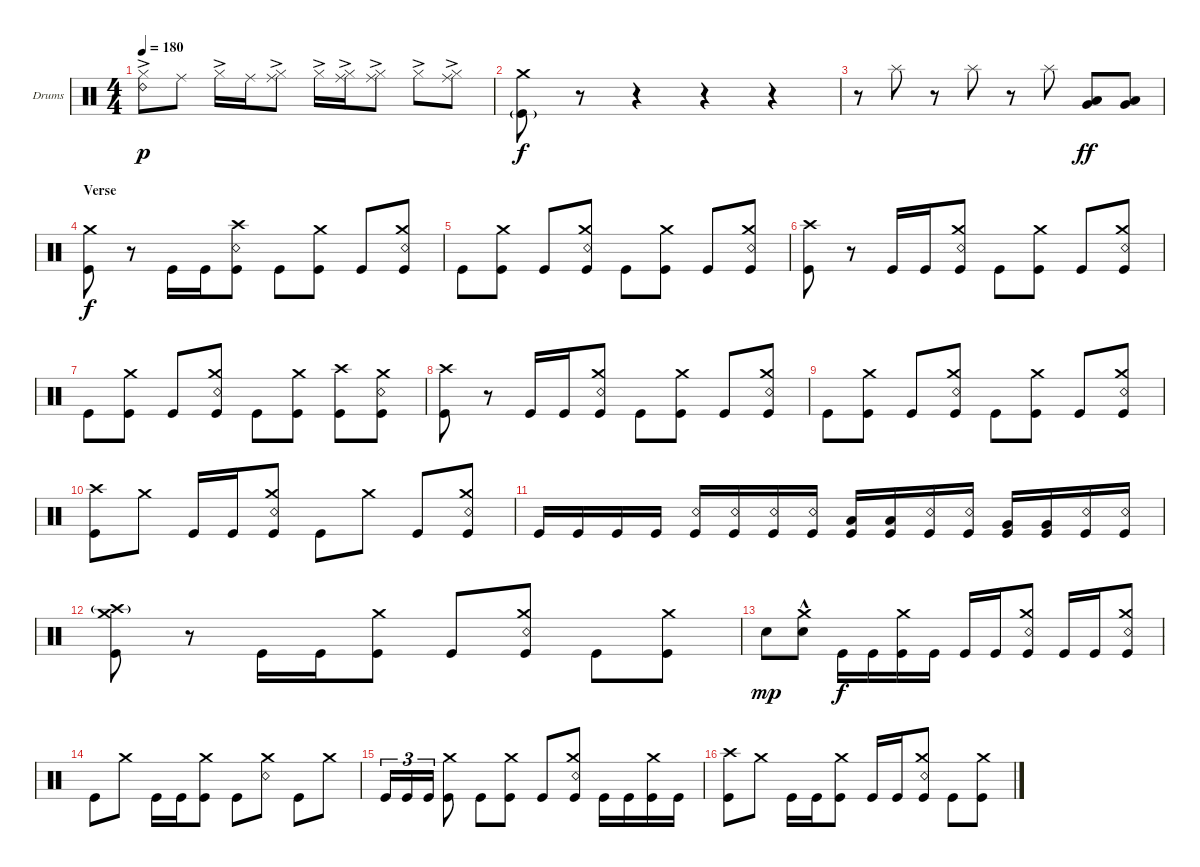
\bracketExtendMode groupsimilarinstruments
\firstSystemTrackNameOrientation horizontal
\otherSystemsTrackNameOrientation horizontal
\track ("Drumkit" "Drums") {instrument percussion}
\staff {score}
\articulation defaults
\ts (4 4)
\tempo 180
\clef neutral
\ks c
("Ride (bell) 2" "Hi-Hat (closed)"{ac}).8{dy p} "Ride (middle)".8 "Hi-Hat (closed)"{ac}.16 "Ride (middle)".16 ("Ride (middle)" "Hi-Hat (closed)"{ac}).8 "Hi-Hat (closed)"{ac}.16 ("Ride (middle)" "Hi-Hat (closed)"{ac}).16 ("Ride (middle)" "Hi-Hat (closed)"{ac}).8 "Hi-Hat (closed)"{ac}.8 ("Ride (middle)" "Hi-Hat (closed)"{ac}).8 |
("Kick (hit)"{g} "Crash medium (hit)").8{dy f} r.8 r.4 r.4 r.4 |
r.8 "Splash (hit)".8 r.8 "Splash (hit)".8 r.8 "Splash (hit)".8 ("Very Low Tom (hit)" "Low Tom (hit)").8{dy ff} ("Very Low Tom (hit)" "Low Tom (hit)").8 |
\section ("" "Verse")
("Kick (hit)" "Crash medium (hit)").8{dy f} r.8 "Kick (hit)".16 "Kick (hit)".16 ("Kick (hit)" "Snare (rim shot)" "Crash high (hit)").8 "Kick (hit)".8 ("Kick (hit)" "Crash medium (hit)").8 "Kick (hit)".8 ("Kick (hit)" "Snare (rim shot)" "Crash medium (hit)").8 |
"Kick (hit)".8 ("Kick (hit)" "Crash medium (hit)").8 "Kick (hit)".8 ("Kick (hit)" "Snare (rim shot)" "Crash medium (hit)").8 "Kick (hit)".8 ("Kick (hit)" "Crash medium (hit)").8 "Kick (hit)".8 ("Kick (hit)" "Snare (rim shot)" "Crash medium (hit)").8 |
("Kick (hit)" "Crash high (hit)").8 r.8 "Kick (hit)".16 "Kick (hit)".16 ("Kick (hit)" "Snare (rim shot)" "Crash medium (hit)").8 "Kick (hit)".8 ("Kick (hit)" "Crash medium (hit)").8 "Kick (hit)".8 ("Kick (hit)" "Snare (rim shot)" "Crash medium (hit)").8 |
"Kick (hit)".8 ("Kick (hit)" "Crash medium (hit)").8 "Kick (hit)".8 ("Kick (hit)" "Snare (rim shot)" "Crash medium (hit)").8 "Kick (hit)".8 ("Kick (hit)" "Crash medium (hit)").8 ("Kick (hit)" "Crash high (hit)").8 ("Kick (hit)" "Snare (rim shot)" "Crash medium (hit)").8 |
("Kick (hit)" "Crash high (hit)").8 r.8 "Kick (hit)".16 "Kick (hit)".16 ("Kick (hit)" "Snare (rim shot)" "Crash medium (hit)").8 "Kick (hit)".8 ("Kick (hit)" "Crash medium (hit)").8 "Kick (hit)".8 ("Kick (hit)" "Snare (rim shot)" "Crash medium (hit)").8 |
"Kick (hit)".8 ("Kick (hit)" "Crash medium (hit)").8 "Kick (hit)".8 ("Kick (hit)" "Snare (rim shot)" "Crash medium (hit)").8 "Kick (hit)".8 ("Kick (hit)" "Crash medium (hit)").8 "Kick (hit)".8 ("Kick (hit)" "Snare (rim shot)" "Crash medium (hit)").8 |
("Kick (hit)" "Crash high (hit)").8 "Crash medium (hit)".8 "Kick (hit)".16 "Kick (hit)".16 ("Kick (hit)" "Snare (rim shot)" "Crash medium (hit)").8 "Kick (hit)".8 "Crash medium (hit)".8 "Kick (hit)".8 ("Kick (hit)" "Snare (rim shot)" "Crash medium (hit)").8 |
"Kick (hit)".16 "Kick (hit)".16 "Kick (hit)".16 "Kick (hit)".16 ("Kick (hit)" "Snare (rim shot)").16 ("Kick (hit)" "Snare (rim shot)").16 ("Kick (hit)" "Snare (rim shot)").16 ("Kick (hit)" "Snare (rim shot)").16 ("Kick (hit)" "Low Tom (hit)").16 ("Kick (hit)" "Low Tom (hit)").16 ("Kick (hit)" "Snare (rim shot)").16 ("Kick (hit)" "Snare (rim shot)").16 ("Kick (hit)" "Very Low Tom (hit)").16 ("Kick (hit)" "Very Low Tom (hit)").16 ("Snare (rim shot)" "Kick (hit)").16 ("Snare (rim shot)" "Kick (hit)").16 |
("Kick (hit)" "Crash medium (hit)" "Crash high (hit)"{g}).8 r.8 "Kick (hit)".16 "Kick (hit)".16 ("Kick (hit)" "Crash medium (hit)").8 "Kick (hit)".8 ("Kick (hit)" "Snare (rim shot)" "Crash medium (hit)").8 "Kick (hit)".8 ("Kick (hit)" "Crash medium (hit)").8 |
"Snare (hit) 2".8{dy mp} ("Snare (hit) 2" "Crash medium (hit)"{hac}).8 "Kick (hit)".16{dy f} "Kick (hit)".16 ("Kick (hit)" "Crash medium (hit)").16 "Kick (hit)".16 "Kick (hit)".16 "Kick (hit)".16 ("Kick (hit)" "Snare (rim shot)" "Crash medium (hit)").8 "Kick (hit)".16 "Kick (hit)".16 ("Kick (hit)" "Snare (rim shot)" "Crash medium (hit)").8 |
"Kick (hit)".8 "Crash medium (hit)".8 "Kick (hit)".16 "Kick (hit)".16 ("Kick (hit)" "Crash medium (hit)").8 "Kick (hit)".8 ("Snare (rim shot)" "Crash medium (hit)").8 "Kick (hit)".8 "Crash medium (hit)".8 |
"Kick (hit)".16{tu (3 2)} "Kick (hit)".16{tu (3 2)} "Kick (hit)".16{tu (3 2)} ("Kick (hit)" "Crash medium (hit)").8 "Kick (hit)".8 ("Crash medium (hit)" "Kick (hit)").8 "Kick (hit)".8 ("Kick (hit)" "Snare (rim shot)" "Crash medium (hit)").8 "Kick (hit)".16 "Kick (hit)".16 ("Kick (hit)" "Crash medium (hit)").16 "Kick (hit)".16 |
("Kick (hit)" "Crash high (hit)").8 "Crash medium (hit)".8 "Kick (hit)".16 "Kick (hit)".16 ("Kick (hit)" "Crash medium (hit)").8 "Kick (hit)".16 "Kick (hit)".16 ("Kick (hit)" "Snare (rim shot)" "Crash medium (hit)").8 "Kick (hit)".8 ("Crash medium (hit)" "Kick (hit)").8
